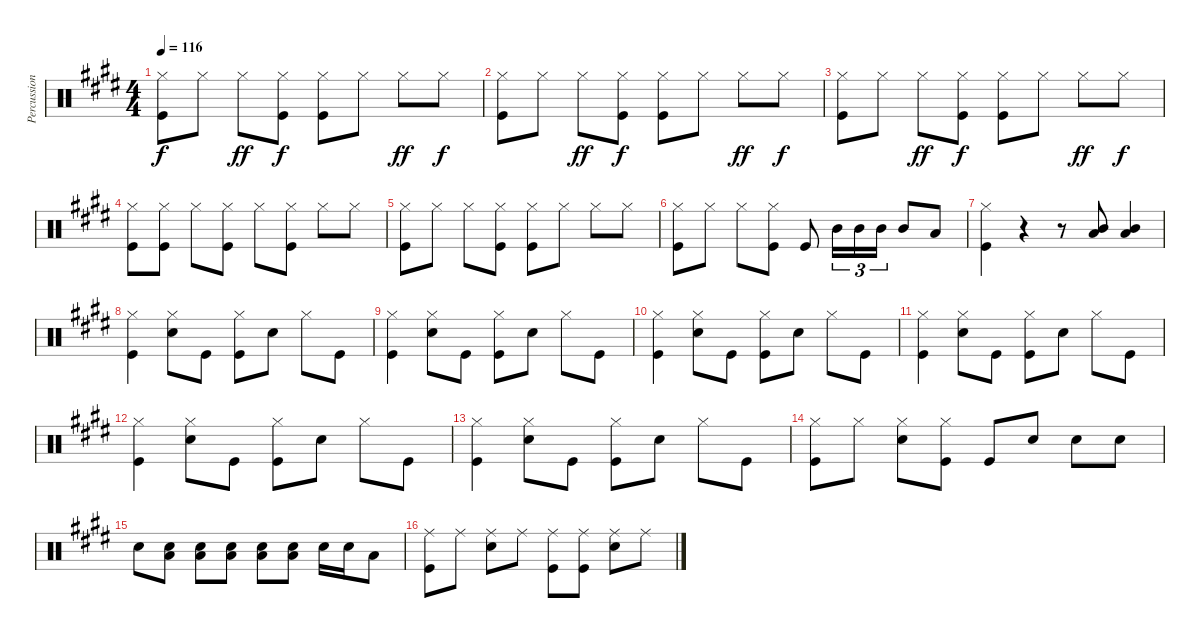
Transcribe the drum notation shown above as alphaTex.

\track ("Percussion" "Percussion") {instrument percussion}
\staff {score}
\articulation defaults
\ts (4 4)
\tempo 116
\clef neutral
\ks e
("Hi-Hat (closed)" "Kick (hit)").8{dy f} "Hi-Hat (closed)".8 "Hi-Hat (closed)".8{dy ff} ("Hi-Hat (closed)" "Kick (hit)").8{dy f} ("Hi-Hat (closed)" "Kick (hit)").8 "Hi-Hat (closed)".8 "Hi-Hat (closed)".8{dy ff} "Hi-Hat (closed)".8{dy f} |
("Hi-Hat (closed)" "Kick (hit)").8 "Hi-Hat (closed)".8 "Hi-Hat (closed)".8{dy ff} ("Hi-Hat (closed)" "Kick (hit)").8{dy f} ("Hi-Hat (closed)" "Kick (hit)").8 "Hi-Hat (closed)".8 "Hi-Hat (closed)".8{dy ff} "Hi-Hat (closed)".8{dy f} |
("Hi-Hat (closed)" "Kick (hit)").8 "Hi-Hat (closed)".8 "Hi-Hat (closed)".8{dy ff} ("Hi-Hat (closed)" "Kick (hit)").8{dy f} ("Hi-Hat (closed)" "Kick (hit)").8 "Hi-Hat (closed)".8 "Hi-Hat (closed)".8{dy ff} "Hi-Hat (closed)".8{dy f} |
("Hi-Hat (closed)" "Kick (hit)").8 ("Hi-Hat (closed)" "Kick (hit)").8 "Hi-Hat (closed)".8 ("Hi-Hat (closed)" "Kick (hit)").8 "Hi-Hat (closed)".8 ("Hi-Hat (closed)" "Kick (hit)").8 "Hi-Hat (closed)".8 "Hi-Hat (closed)".8 |
("Hi-Hat (closed)" "Kick (hit)").8 "Hi-Hat (closed)".8 "Hi-Hat (closed)".8 ("Hi-Hat (closed)" "Kick (hit)").8 ("Hi-Hat (closed)" "Kick (hit)").8 "Hi-Hat (closed)".8 "Hi-Hat (closed)".8 "Hi-Hat (closed)".8 |
("Hi-Hat (closed)" "Kick (hit)").8 "Hi-Hat (closed)".8 "Hi-Hat (closed)".8 ("Hi-Hat (closed)" "Kick (hit)").8 "Kick (hit)".8 "Mid Tom (hit)".16{tu (3 2)} "Mid Tom (hit)".16{tu (3 2)} "Mid Tom (hit)".16{tu (3 2)} "Mid Tom (hit)".8 "Low Tom (hit)".8 |
("Hi-Hat (closed)" "Kick (hit)").4 r.4 r.8 ("Low Tom (hit)" "Mid Tom (hit)").8 ("Low Tom (hit)" "Mid Tom (hit)").4 |
("Hi-Hat (closed)" "Kick (hit)").4 ("Hi-Hat (closed)" "Snare (hit) 2").8 "Kick (hit)".8 ("Hi-Hat (closed)" "Kick (hit)").8 "Snare (hit) 2".8 "Hi-Hat (closed)".8 "Kick (hit)".8 |
("Hi-Hat (closed)" "Kick (hit)").4 ("Hi-Hat (closed)" "Snare (hit) 2").8 "Kick (hit)".8 ("Hi-Hat (closed)" "Kick (hit)").8 "Snare (hit) 2".8 "Hi-Hat (closed)".8 "Kick (hit)".8 |
("Hi-Hat (closed)" "Kick (hit)").4 ("Hi-Hat (closed)" "Snare (hit) 2").8 "Kick (hit)".8 ("Hi-Hat (closed)" "Kick (hit)").8 "Snare (hit) 2".8 "Hi-Hat (closed)".8 "Kick (hit)".8 |
("Hi-Hat (closed)" "Kick (hit)").4 ("Hi-Hat (closed)" "Snare (hit) 2").8 "Kick (hit)".8 ("Hi-Hat (closed)" "Kick (hit)").8 "Snare (hit) 2".8 "Hi-Hat (closed)".8 "Kick (hit)".8 |
("Hi-Hat (closed)" "Kick (hit)").4 ("Hi-Hat (closed)" "Snare (hit) 2").8 "Kick (hit)".8 ("Hi-Hat (closed)" "Kick (hit)").8 "Snare (hit) 2".8 "Hi-Hat (closed)".8 "Kick (hit)".8 |
("Hi-Hat (closed)" "Kick (hit)").4 ("Hi-Hat (closed)" "Snare (hit) 2").8 "Kick (hit)".8 ("Hi-Hat (closed)" "Kick (hit)").8 "Snare (hit) 2".8 "Hi-Hat (closed)".8 "Kick (hit)".8 |
("Hi-Hat (closed)" "Kick (hit)").8 "Hi-Hat (closed)".8 ("Hi-Hat (closed)" "Snare (hit) 2").8 ("Hi-Hat (closed)" "Kick (hit)").8 "Kick (hit)".8 "Snare (hit) 2".8 "Snare (hit) 2".8 "Snare (hit) 2".8 |
"Snare (hit) 2".8 ("Low Tom (hit)" "Snare (hit) 2").8 ("Low Tom (hit)" "Snare (hit) 2").8 ("Low Tom (hit)" "Snare (hit) 2").8 ("Low Tom (hit)" "Snare (hit) 2").8 ("Low Tom (hit)" "Snare (hit) 2").8 "Snare (hit) 2".16 "Snare (hit) 2".16 "Low Tom (hit)".8 |
("Ride (middle)" "Kick (hit)").8 "Ride (middle)".8 ("Ride (middle)" "Snare (hit) 2").8 "Ride (middle)".8 ("Ride (middle)" "Kick (hit)").8 ("Ride (middle)" "Kick (hit)").8 ("Ride (middle)" "Snare (hit) 2").8 "Ride (middle)".8
